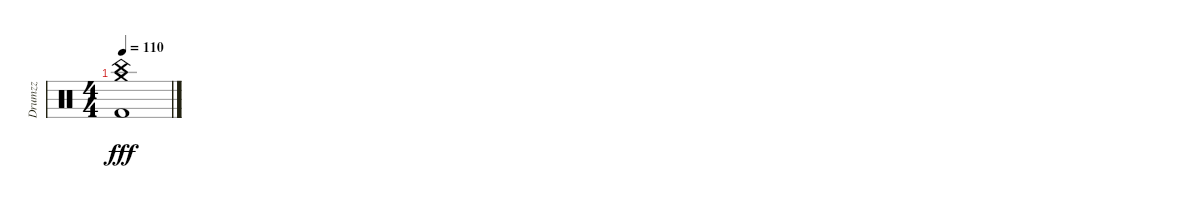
\track ("Drumzz" "Drumzz") {instrument percussion}
\staff {score}
\articulation defaults
\ts (4 4)
\tempo 110
\clef neutral
\ks c
("China (hit)" "Crash medium (hit)" "Kick (hit) 2").1{dy fff}
